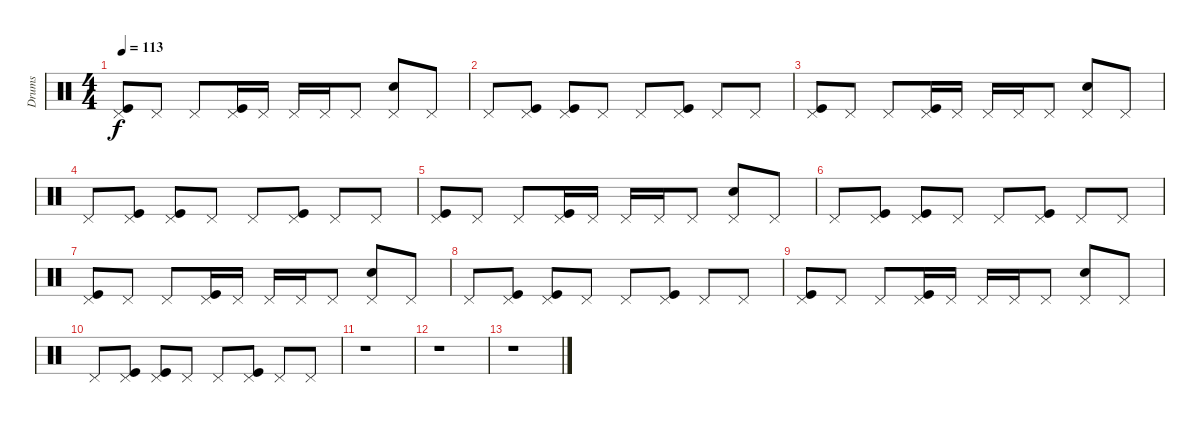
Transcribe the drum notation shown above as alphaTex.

\track ("Drums" "Drums") {instrument percussion}
\staff {score}
\articulation defaults
\ts (4 4)
\tempo 113
\clef neutral
\ks c
("Pedal Hi-Hat (hit)" "Kick (hit)").8{dy f} "Pedal Hi-Hat (hit)".8 "Pedal Hi-Hat (hit)".8 ("Pedal Hi-Hat (hit)" "Kick (hit)").16 "Pedal Hi-Hat (hit)".16 "Pedal Hi-Hat (hit)".16 "Pedal Hi-Hat (hit)".16 "Pedal Hi-Hat (hit)".8 ("Pedal Hi-Hat (hit)" "Snare (hit) 2").8 "Pedal Hi-Hat (hit)".8 |
"Pedal Hi-Hat (hit)".8 ("Pedal Hi-Hat (hit)" "Kick (hit)").8 ("Pedal Hi-Hat (hit)" "Kick (hit)").8 "Pedal Hi-Hat (hit)".8 "Pedal Hi-Hat (hit)".8 ("Pedal Hi-Hat (hit)" "Kick (hit)").8 "Pedal Hi-Hat (hit)".8 "Pedal Hi-Hat (hit)".8 |
("Pedal Hi-Hat (hit)" "Kick (hit)").8 "Pedal Hi-Hat (hit)".8 "Pedal Hi-Hat (hit)".8 ("Pedal Hi-Hat (hit)" "Kick (hit)").16 "Pedal Hi-Hat (hit)".16 "Pedal Hi-Hat (hit)".16 "Pedal Hi-Hat (hit)".16 "Pedal Hi-Hat (hit)".8 ("Pedal Hi-Hat (hit)" "Snare (hit) 2").8 "Pedal Hi-Hat (hit)".8 |
"Pedal Hi-Hat (hit)".8 ("Pedal Hi-Hat (hit)" "Kick (hit)").8 ("Pedal Hi-Hat (hit)" "Kick (hit)").8 "Pedal Hi-Hat (hit)".8 "Pedal Hi-Hat (hit)".8 ("Pedal Hi-Hat (hit)" "Kick (hit)").8 "Pedal Hi-Hat (hit)".8 "Pedal Hi-Hat (hit)".8 |
("Pedal Hi-Hat (hit)" "Kick (hit)").8 "Pedal Hi-Hat (hit)".8 "Pedal Hi-Hat (hit)".8 ("Pedal Hi-Hat (hit)" "Kick (hit)").16 "Pedal Hi-Hat (hit)".16 "Pedal Hi-Hat (hit)".16 "Pedal Hi-Hat (hit)".16 "Pedal Hi-Hat (hit)".8 ("Pedal Hi-Hat (hit)" "Snare (hit) 2").8 "Pedal Hi-Hat (hit)".8 |
"Pedal Hi-Hat (hit)".8 ("Pedal Hi-Hat (hit)" "Kick (hit)").8 ("Pedal Hi-Hat (hit)" "Kick (hit)").8 "Pedal Hi-Hat (hit)".8 "Pedal Hi-Hat (hit)".8 ("Pedal Hi-Hat (hit)" "Kick (hit)").8 "Pedal Hi-Hat (hit)".8 "Pedal Hi-Hat (hit)".8 |
("Pedal Hi-Hat (hit)" "Kick (hit)").8 "Pedal Hi-Hat (hit)".8 "Pedal Hi-Hat (hit)".8 ("Pedal Hi-Hat (hit)" "Kick (hit)").16 "Pedal Hi-Hat (hit)".16 "Pedal Hi-Hat (hit)".16 "Pedal Hi-Hat (hit)".16 "Pedal Hi-Hat (hit)".8 ("Pedal Hi-Hat (hit)" "Snare (hit) 2").8 "Pedal Hi-Hat (hit)".8 |
"Pedal Hi-Hat (hit)".8 ("Pedal Hi-Hat (hit)" "Kick (hit)").8 ("Pedal Hi-Hat (hit)" "Kick (hit)").8 "Pedal Hi-Hat (hit)".8 "Pedal Hi-Hat (hit)".8 ("Pedal Hi-Hat (hit)" "Kick (hit)").8 "Pedal Hi-Hat (hit)".8 "Pedal Hi-Hat (hit)".8 |
("Pedal Hi-Hat (hit)" "Kick (hit)").8 "Pedal Hi-Hat (hit)".8 "Pedal Hi-Hat (hit)".8 ("Pedal Hi-Hat (hit)" "Kick (hit)").16 "Pedal Hi-Hat (hit)".16 "Pedal Hi-Hat (hit)".16 "Pedal Hi-Hat (hit)".16 "Pedal Hi-Hat (hit)".8 ("Pedal Hi-Hat (hit)" "Snare (hit) 2").8 "Pedal Hi-Hat (hit)".8 |
"Pedal Hi-Hat (hit)".8 ("Pedal Hi-Hat (hit)" "Kick (hit)").8 ("Pedal Hi-Hat (hit)" "Kick (hit)").8 "Pedal Hi-Hat (hit)".8 "Pedal Hi-Hat (hit)".8 ("Pedal Hi-Hat (hit)" "Kick (hit)").8 "Pedal Hi-Hat (hit)".8 "Pedal Hi-Hat (hit)".8 |
r.1 |
r.1 |
r.1
